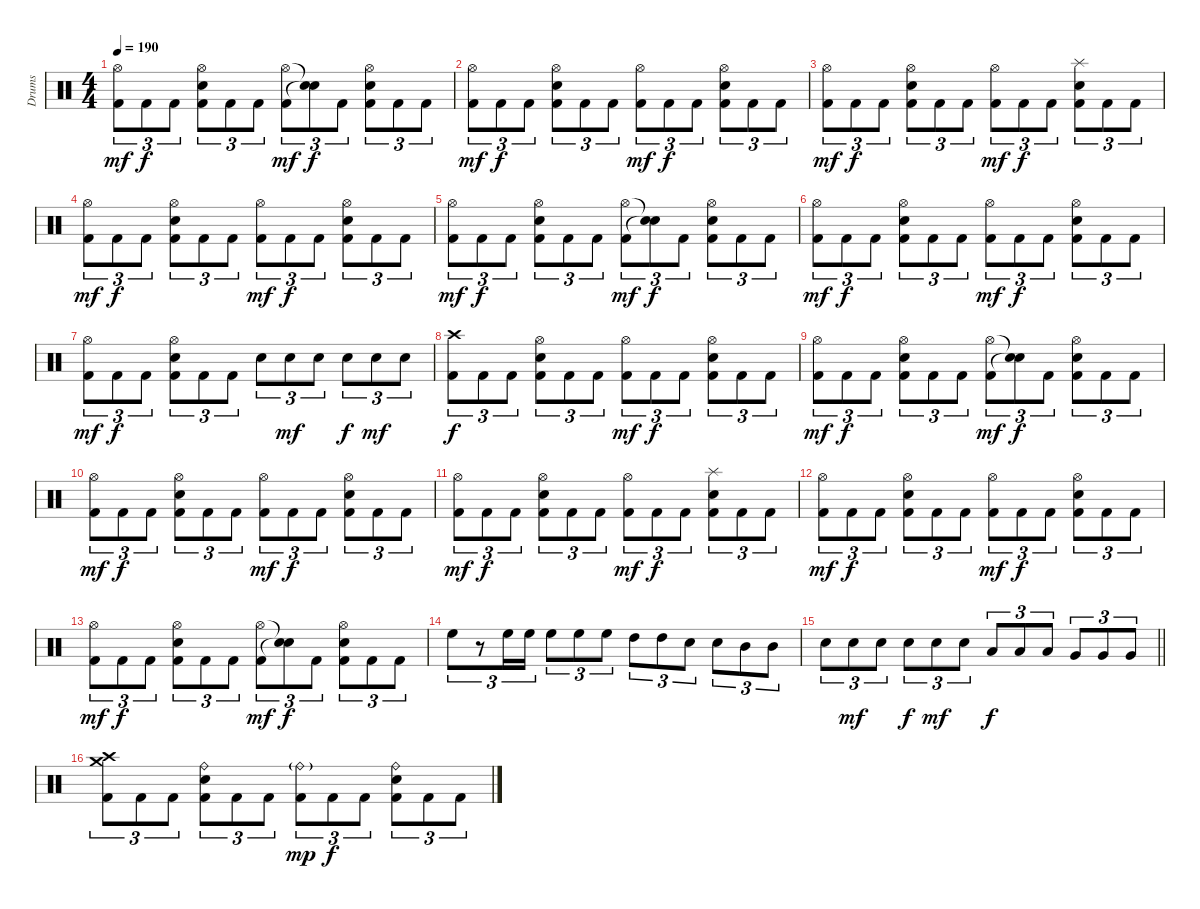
\track ("Drums" "Drums") {instrument percussion}
\staff {score}
\articulation defaults
\ts (4 4)
\tempo 190
\clef neutral
\ks c
("Hi-Hat (open)" "Kick (hit) 2").8{tu (3 2) dy mf} "Kick (hit) 2".8{tu (3 2) dy f} "Kick (hit) 2".8{tu (3 2)} ("Hi-Hat (open)" "Electric Snare (hit)" "Kick (hit) 2").8{tu (3 2)} "Kick (hit) 2".8{tu (3 2)} "Kick (hit) 2".8{tu (3 2)} ("Hi-Hat (open)" "Kick (hit) 2").8{tu (3 2) dy mf} ("Snare (hit)"{t} "Snare (hit)"{t}).8{tu (3 2) dy f} "Kick (hit) 2".8{tu (3 2)} ("Hi-Hat (open)" "Electric Snare (hit)" "Kick (hit) 2").8{tu (3 2)} "Kick (hit) 2".8{tu (3 2)} "Kick (hit) 2".8{tu (3 2)} |
("Hi-Hat (open)" "Kick (hit) 2").8{tu (3 2) dy mf} "Kick (hit) 2".8{tu (3 2) dy f} "Kick (hit) 2".8{tu (3 2)} ("Hi-Hat (open)" "Electric Snare (hit)" "Kick (hit) 2").8{tu (3 2)} "Kick (hit) 2".8{tu (3 2)} "Kick (hit) 2".8{tu (3 2)} ("Hi-Hat (open)" "Kick (hit) 2").8{tu (3 2) dy mf} "Kick (hit) 2".8{tu (3 2) dy f} "Kick (hit) 2".8{tu (3 2)} ("Hi-Hat (open)" "Electric Snare (hit)" "Kick (hit) 2").8{tu (3 2)} "Kick (hit) 2".8{tu (3 2)} "Kick (hit) 2".8{tu (3 2)} |
("Hi-Hat (open)" "Kick (hit) 2").8{tu (3 2) dy mf} "Kick (hit) 2".8{tu (3 2) dy f} "Kick (hit) 2".8{tu (3 2)} ("Hi-Hat (open)" "Electric Snare (hit)" "Kick (hit) 2").8{tu (3 2)} "Kick (hit) 2".8{tu (3 2)} "Kick (hit) 2".8{tu (3 2)} ("Hi-Hat (open)" "Kick (hit) 2").8{tu (3 2) dy mf} "Kick (hit) 2".8{tu (3 2) dy f} "Kick (hit) 2".8{tu (3 2)} ("Splash (hit)" "Electric Snare (hit)" "Kick (hit) 2").8{tu (3 2)} "Kick (hit) 2".8{tu (3 2)} "Kick (hit) 2".8{tu (3 2)} |
("Hi-Hat (open)" "Kick (hit) 2").8{tu (3 2) dy mf} "Kick (hit) 2".8{tu (3 2) dy f} "Kick (hit) 2".8{tu (3 2)} ("Hi-Hat (open)" "Electric Snare (hit)" "Kick (hit) 2").8{tu (3 2)} "Kick (hit) 2".8{tu (3 2)} "Kick (hit) 2".8{tu (3 2)} ("Hi-Hat (open)" "Kick (hit) 2").8{tu (3 2) dy mf} "Kick (hit) 2".8{tu (3 2) dy f} "Kick (hit) 2".8{tu (3 2)} ("Hi-Hat (open)" "Electric Snare (hit)" "Kick (hit) 2").8{tu (3 2)} "Kick (hit) 2".8{tu (3 2)} "Kick (hit) 2".8{tu (3 2)} |
("Hi-Hat (open)" "Kick (hit) 2").8{tu (3 2) dy mf} "Kick (hit) 2".8{tu (3 2) dy f} "Kick (hit) 2".8{tu (3 2)} ("Hi-Hat (open)" "Electric Snare (hit)" "Kick (hit) 2").8{tu (3 2)} "Kick (hit) 2".8{tu (3 2)} "Kick (hit) 2".8{tu (3 2)} ("Hi-Hat (open)" "Kick (hit) 2").8{tu (3 2) dy mf} ("Snare (hit)"{t} "Snare (hit)"{t}).8{tu (3 2) dy f} "Kick (hit) 2".8{tu (3 2)} ("Hi-Hat (open)" "Electric Snare (hit)" "Kick (hit) 2").8{tu (3 2)} "Kick (hit) 2".8{tu (3 2)} "Kick (hit) 2".8{tu (3 2)} |
("Hi-Hat (open)" "Kick (hit) 2").8{tu (3 2) dy mf} "Kick (hit) 2".8{tu (3 2) dy f} "Kick (hit) 2".8{tu (3 2)} ("Hi-Hat (open)" "Electric Snare (hit)" "Kick (hit) 2").8{tu (3 2)} "Kick (hit) 2".8{tu (3 2)} "Kick (hit) 2".8{tu (3 2)} ("Hi-Hat (open)" "Kick (hit) 2").8{tu (3 2) dy mf} "Kick (hit) 2".8{tu (3 2) dy f} "Kick (hit) 2".8{tu (3 2)} ("Hi-Hat (open)" "Electric Snare (hit)" "Kick (hit) 2").8{tu (3 2)} "Kick (hit) 2".8{tu (3 2)} "Kick (hit) 2".8{tu (3 2)} |
("Hi-Hat (open)" "Kick (hit) 2").8{tu (3 2) dy mf} "Kick (hit) 2".8{tu (3 2) dy f} "Kick (hit) 2".8{tu (3 2)} ("Hi-Hat (open)" "Electric Snare (hit)" "Kick (hit) 2").8{tu (3 2)} "Kick (hit) 2".8{tu (3 2)} "Kick (hit) 2".8{tu (3 2)} "Electric Snare (hit)".8{tu (3 2)} "Electric Snare (hit)".8{tu (3 2) dy mf} "Electric Snare (hit)".8{tu (3 2)} "Electric Snare (hit)".8{tu (3 2) dy f} "Electric Snare (hit)".8{tu (3 2) dy mf} "Electric Snare (hit)".8{tu (3 2)} |
("Crash high (hit)" "Kick (hit) 2").8{tu (3 2) dy f} "Kick (hit) 2".8{tu (3 2)} "Kick (hit) 2".8{tu (3 2)} ("Hi-Hat (open)" "Electric Snare (hit)" "Kick (hit) 2").8{tu (3 2)} "Kick (hit) 2".8{tu (3 2)} "Kick (hit) 2".8{tu (3 2)} ("Hi-Hat (open)" "Kick (hit) 2").8{tu (3 2) dy mf} "Kick (hit) 2".8{tu (3 2) dy f} "Kick (hit) 2".8{tu (3 2)} ("Hi-Hat (open)" "Electric Snare (hit)" "Kick (hit) 2").8{tu (3 2)} "Kick (hit) 2".8{tu (3 2)} "Kick (hit) 2".8{tu (3 2)} |
("Hi-Hat (open)" "Kick (hit) 2").8{tu (3 2) dy mf} "Kick (hit) 2".8{tu (3 2) dy f} "Kick (hit) 2".8{tu (3 2)} ("Hi-Hat (open)" "Electric Snare (hit)" "Kick (hit) 2").8{tu (3 2)} "Kick (hit) 2".8{tu (3 2)} "Kick (hit) 2".8{tu (3 2)} ("Hi-Hat (open)" "Kick (hit) 2").8{tu (3 2) dy mf} ("Snare (hit)"{t} "Snare (hit)"{t}).8{tu (3 2) dy f} "Kick (hit) 2".8{tu (3 2)} ("Hi-Hat (open)" "Electric Snare (hit)" "Kick (hit) 2").8{tu (3 2)} "Kick (hit) 2".8{tu (3 2)} "Kick (hit) 2".8{tu (3 2)} |
("Hi-Hat (open)" "Kick (hit) 2").8{tu (3 2) dy mf} "Kick (hit) 2".8{tu (3 2) dy f} "Kick (hit) 2".8{tu (3 2)} ("Hi-Hat (open)" "Electric Snare (hit)" "Kick (hit) 2").8{tu (3 2)} "Kick (hit) 2".8{tu (3 2)} "Kick (hit) 2".8{tu (3 2)} ("Hi-Hat (open)" "Kick (hit) 2").8{tu (3 2) dy mf} "Kick (hit) 2".8{tu (3 2) dy f} "Kick (hit) 2".8{tu (3 2)} ("Hi-Hat (open)" "Electric Snare (hit)" "Kick (hit) 2").8{tu (3 2)} "Kick (hit) 2".8{tu (3 2)} "Kick (hit) 2".8{tu (3 2)} |
("Hi-Hat (open)" "Kick (hit) 2").8{tu (3 2) dy mf} "Kick (hit) 2".8{tu (3 2) dy f} "Kick (hit) 2".8{tu (3 2)} ("Hi-Hat (open)" "Electric Snare (hit)" "Kick (hit) 2").8{tu (3 2)} "Kick (hit) 2".8{tu (3 2)} "Kick (hit) 2".8{tu (3 2)} ("Hi-Hat (open)" "Kick (hit) 2").8{tu (3 2) dy mf} "Kick (hit) 2".8{tu (3 2) dy f} "Kick (hit) 2".8{tu (3 2)} ("Splash (hit)" "Electric Snare (hit)" "Kick (hit) 2").8{tu (3 2)} "Kick (hit) 2".8{tu (3 2)} "Kick (hit) 2".8{tu (3 2)} |
("Hi-Hat (open)" "Kick (hit) 2").8{tu (3 2) dy mf} "Kick (hit) 2".8{tu (3 2) dy f} "Kick (hit) 2".8{tu (3 2)} ("Hi-Hat (open)" "Electric Snare (hit)" "Kick (hit) 2").8{tu (3 2)} "Kick (hit) 2".8{tu (3 2)} "Kick (hit) 2".8{tu (3 2)} ("Hi-Hat (open)" "Kick (hit) 2").8{tu (3 2) dy mf} "Kick (hit) 2".8{tu (3 2) dy f} "Kick (hit) 2".8{tu (3 2)} ("Hi-Hat (open)" "Electric Snare (hit)" "Kick (hit) 2").8{tu (3 2)} "Kick (hit) 2".8{tu (3 2)} "Kick (hit) 2".8{tu (3 2)} |
("Hi-Hat (open)" "Kick (hit) 2").8{tu (3 2) dy mf} "Kick (hit) 2".8{tu (3 2) dy f} "Kick (hit) 2".8{tu (3 2)} ("Hi-Hat (open)" "Electric Snare (hit)" "Kick (hit) 2").8{tu (3 2)} "Kick (hit) 2".8{tu (3 2)} "Kick (hit) 2".8{tu (3 2)} ("Hi-Hat (open)" "Kick (hit) 2").8{tu (3 2) dy mf} ("Snare (hit)"{t} "Snare (hit)"{t}).8{tu (3 2) dy f} "Kick (hit) 2".8{tu (3 2)} ("Hi-Hat (open)" "Electric Snare (hit)" "Kick (hit) 2").8{tu (3 2)} "Kick (hit) 2".8{tu (3 2)} "Kick (hit) 2".8{tu (3 2)} |
"High Floor Tom (hit)".8{tu (3 2)} r.8{tu (3 2)} "High Floor Tom (hit)".16{tu (3 2)} "High Floor Tom (hit)".16{tu (3 2)} "High Floor Tom (hit)".8{tu (3 2)} "High Floor Tom (hit)".8{tu (3 2)} "High Floor Tom (hit)".8{tu (3 2)} "High Tom (hit)".8{tu (3 2)} "High Tom (hit)".8{tu (3 2)} "Electric Snare (hit)".8{tu (3 2)} "Electric Snare (hit)".8{tu (3 2)} "Mid Tom (hit)".8{tu (3 2)} "Mid Tom (hit)".8{tu (3 2)} |
\barLineRight lightlight "Electric Snare (hit)".8{tu (3 2)} "Electric Snare (hit)".8{tu (3 2) dy mf} "Electric Snare (hit)".8{tu (3 2)} "Electric Snare (hit)".8{tu (3 2) dy f} "Electric Snare (hit)".8{tu (3 2) dy mf} "Electric Snare (hit)".8{tu (3 2)} "Low Tom (hit)".8{tu (3 2) dy f} "Low Tom (hit)".8{tu (3 2)} "Low Tom (hit)".8{tu (3 2)} "Very Low Tom (hit)".8{tu (3 2)} "Very Low Tom (hit)".8{tu (3 2)} "Very Low Tom (hit)".8{tu (3 2)}
|
("Crash high (hit)" "Crash medium (hit)" "Kick (hit) 2").8{tu (3 2)} "Kick (hit) 2".8{tu (3 2)} "Kick (hit) 2".8{tu (3 2)} ("Ride (bell)" "Electric Snare (hit)" "Kick (hit) 2").8{tu (3 2)} "Kick (hit) 2".8{tu (3 2)} "Kick (hit) 2".8{tu (3 2)} ("Ride (bell)"{g} "Kick (hit) 2").8{tu (3 2) dy mp} "Kick (hit) 2".8{tu (3 2) dy f} "Kick (hit) 2".8{tu (3 2)} ("Ride (bell)" "Electric Snare (hit)" "Kick (hit) 2").8{tu (3 2)} "Kick (hit) 2".8{tu (3 2)} "Kick (hit) 2".8{tu (3 2)}
